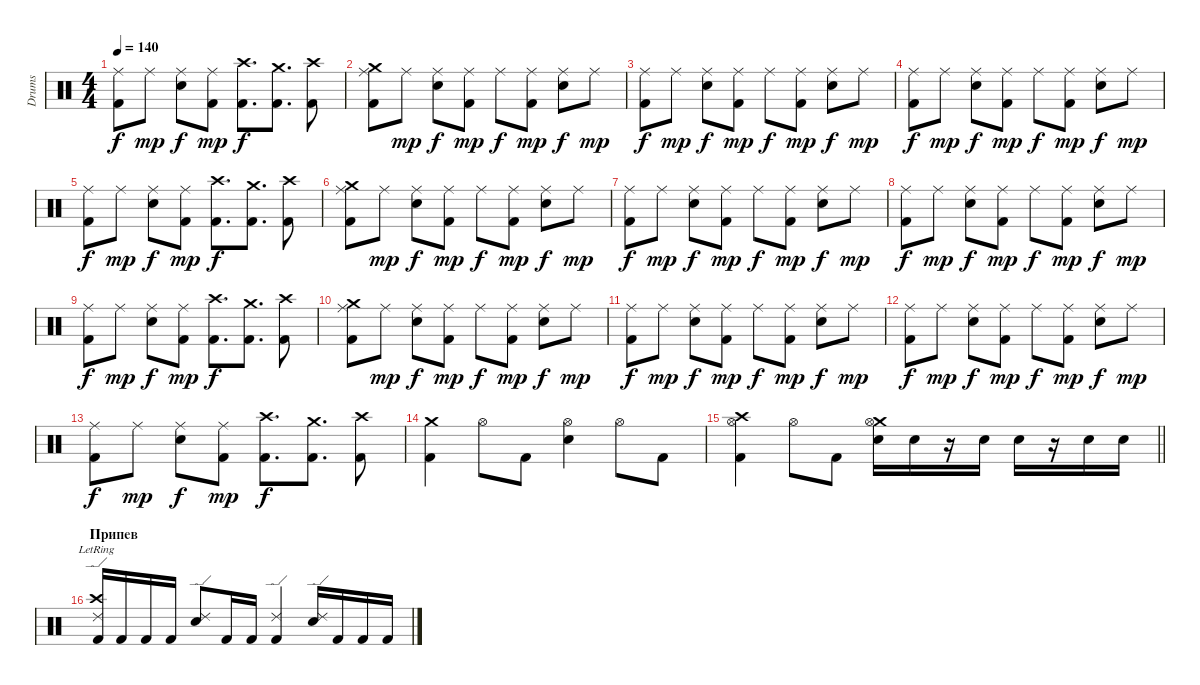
\track ("Drums" "Drums") {instrument percussion}
\staff {score}
\articulation defaults
\ts (4 4)
\tempo 140
\clef neutral
\ks c
("Kick (hit) 2" "Ride (middle)").8{dy f} "Ride (middle)".8{dy mp} ("Electric Snare (hit)" "Ride (middle)").8{dy f} ("Kick (hit) 2" "Ride (middle)").8{dy mp} ("Crash high (hit)" "Kick (hit) 2").8{d dy f} ("Crash medium (hit)" "Kick (hit) 2").8{d} ("Crash high (hit)" "Kick (hit) 2").8 |
("Crash medium (hit)" "Kick (hit) 2" "Ride (middle)").8 "Ride (middle)".8{dy mp} ("Electric Snare (hit)" "Ride (middle)").8{dy f} ("Kick (hit) 2" "Ride (middle)").8{dy mp} "Ride (middle)".8{dy f} ("Kick (hit) 2" "Ride (middle)").8{dy mp} ("Electric Snare (hit)" "Ride (middle)").8{dy f} "Ride (middle)".8{dy mp} |
("Kick (hit) 2" "Ride (middle)").8{dy f} "Ride (middle)".8{dy mp} ("Electric Snare (hit)" "Ride (middle)").8{dy f} ("Kick (hit) 2" "Ride (middle)").8{dy mp} "Ride (middle)".8{dy f} ("Kick (hit) 2" "Ride (middle)").8{dy mp} ("Electric Snare (hit)" "Ride (middle)").8{dy f} "Ride (middle)".8{dy mp} |
("Kick (hit) 2" "Ride (middle)").8{dy f} "Ride (middle)".8{dy mp} ("Electric Snare (hit)" "Ride (middle)").8{dy f} ("Kick (hit) 2" "Ride (middle)").8{dy mp} "Ride (middle)".8{dy f} ("Kick (hit) 2" "Ride (middle)").8{dy mp} ("Electric Snare (hit)" "Ride (middle)").8{dy f} "Ride (middle)".8{dy mp} |
("Kick (hit) 2" "Ride (middle)").8{dy f} "Ride (middle)".8{dy mp} ("Electric Snare (hit)" "Ride (middle)").8{dy f} ("Kick (hit) 2" "Ride (middle)").8{dy mp} ("Crash high (hit)" "Kick (hit) 2").8{d dy f} ("Crash medium (hit)" "Kick (hit) 2").8{d} ("Crash high (hit)" "Kick (hit) 2").8 |
("Crash medium (hit)" "Kick (hit) 2" "Ride (middle)").8 "Ride (middle)".8{dy mp} ("Electric Snare (hit)" "Ride (middle)").8{dy f} ("Kick (hit) 2" "Ride (middle)").8{dy mp} "Ride (middle)".8{dy f} ("Kick (hit) 2" "Ride (middle)").8{dy mp} ("Electric Snare (hit)" "Ride (middle)").8{dy f} "Ride (middle)".8{dy mp} |
("Kick (hit) 2" "Ride (middle)").8{dy f} "Ride (middle)".8{dy mp} ("Electric Snare (hit)" "Ride (middle)").8{dy f} ("Kick (hit) 2" "Ride (middle)").8{dy mp} "Ride (middle)".8{dy f} ("Kick (hit) 2" "Ride (middle)").8{dy mp} ("Electric Snare (hit)" "Ride (middle)").8{dy f} "Ride (middle)".8{dy mp} |
("Kick (hit) 2" "Ride (middle)").8{dy f} "Ride (middle)".8{dy mp} ("Electric Snare (hit)" "Ride (middle)").8{dy f} ("Kick (hit) 2" "Ride (middle)").8{dy mp} "Ride (middle)".8{dy f} ("Kick (hit) 2" "Ride (middle)").8{dy mp} ("Electric Snare (hit)" "Ride (middle)").8{dy f} "Ride (middle)".8{dy mp} |
("Kick (hit) 2" "Ride (middle)").8{dy f} "Ride (middle)".8{dy mp} ("Electric Snare (hit)" "Ride (middle)").8{dy f} ("Kick (hit) 2" "Ride (middle)").8{dy mp} ("Crash high (hit)" "Kick (hit) 2").8{d dy f} ("Crash medium (hit)" "Kick (hit) 2").8{d} ("Crash high (hit)" "Kick (hit) 2").8 |
("Crash medium (hit)" "Kick (hit) 2" "Ride (middle)").8 "Ride (middle)".8{dy mp} ("Electric Snare (hit)" "Ride (middle)").8{dy f} ("Kick (hit) 2" "Ride (middle)").8{dy mp} "Ride (middle)".8{dy f} ("Kick (hit) 2" "Ride (middle)").8{dy mp} ("Electric Snare (hit)" "Ride (middle)").8{dy f} "Ride (middle)".8{dy mp} |
("Kick (hit) 2" "Ride (middle)").8{dy f} "Ride (middle)".8{dy mp} ("Electric Snare (hit)" "Ride (middle)").8{dy f} ("Kick (hit) 2" "Ride (middle)").8{dy mp} "Ride (middle)".8{dy f} ("Kick (hit) 2" "Ride (middle)").8{dy mp} ("Electric Snare (hit)" "Ride (middle)").8{dy f} "Ride (middle)".8{dy mp} |
("Kick (hit) 2" "Ride (middle)").8{dy f} "Ride (middle)".8{dy mp} ("Electric Snare (hit)" "Ride (middle)").8{dy f} ("Kick (hit) 2" "Ride (middle)").8{dy mp} "Ride (middle)".8{dy f} ("Kick (hit) 2" "Ride (middle)").8{dy mp} ("Electric Snare (hit)" "Ride (middle)").8{dy f} "Ride (middle)".8{dy mp} |
("Kick (hit) 2" "Ride (middle)").8{dy f} "Ride (middle)".8{dy mp} ("Electric Snare (hit)" "Ride (middle)").8{dy f} ("Kick (hit) 2" "Ride (middle)").8{dy mp} ("Crash high (hit)" "Kick (hit) 2").8{d dy f} ("Crash medium (hit)" "Kick (hit) 2").8{d} ("Crash high (hit)" "Kick (hit) 2").8 |
("Crash medium (hit)" "Kick (hit) 2").4 "Hi-Hat (open)".8 "Kick (hit) 2".8 ("Electric Snare (hit)" "Hi-Hat (open)").4 "Hi-Hat (open)".8 "Kick (hit) 2".8 |
\barLineRight lightlight
("Crash high (hit)" "Kick (hit) 2" "Hi-Hat (open)").4 "Hi-Hat (open)".8 "Kick (hit) 2".8 ("Crash medium (hit)" "Electric Snare (hit)" "Hi-Hat (open)").16 "Electric Snare (hit)".16 r.16 "Electric Snare (hit)".16 "Electric Snare (hit)".16 r.16 "Electric Snare (hit)".16 "Electric Snare (hit)".16 |
\section ("" "Припев")
("Crash high (hit)"{lr} "Ride (edge) 2"{lr} "Kick (hit) 2").16 "Kick (hit) 2".16 "Kick (hit) 2".16 "Kick (hit) 2".16 ("Ride (edge) 2" "Electric Snare (hit)").8 "Kick (hit) 2".16 "Kick (hit) 2".16 ("Ride (edge) 2" "Kick (hit) 2").4 ("Ride (edge) 2" "Electric Snare (hit)").16 "Kick (hit) 2".16 "Kick (hit) 2".16 "Kick (hit) 2".16
